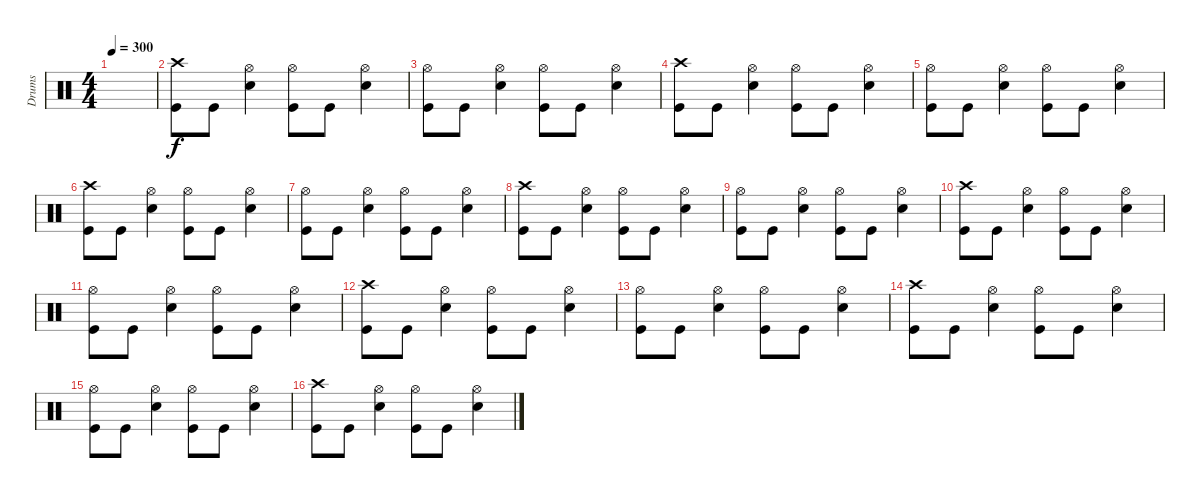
\track ("Drums" "Drums") {instrument percussion}
\staff {score}
\articulation defaults
\ts (4 4)
\tempo 300
\clef neutral
\ks c
|
("Crash high (hit)" "Kick (hit)").8 "Kick (hit)".8 ("Hi-Hat (open)" "Electric Snare (hit)").4 ("Hi-Hat (open)" "Kick (hit)").8 "Kick (hit)".8 ("Hi-Hat (open)" "Electric Snare (hit)").4 |
("Hi-Hat (open)" "Kick (hit)").8 "Kick (hit)".8 ("Hi-Hat (open)" "Electric Snare (hit)").4 ("Hi-Hat (open)" "Kick (hit)").8 "Kick (hit)".8 ("Hi-Hat (open)" "Electric Snare (hit)").4 |
("Crash high (hit)" "Kick (hit)").8 "Kick (hit)".8 ("Hi-Hat (open)" "Electric Snare (hit)").4 ("Hi-Hat (open)" "Kick (hit)").8 "Kick (hit)".8 ("Hi-Hat (open)" "Electric Snare (hit)").4 |
("Hi-Hat (open)" "Kick (hit)").8 "Kick (hit)".8 ("Hi-Hat (open)" "Electric Snare (hit)").4 ("Hi-Hat (open)" "Kick (hit)").8 "Kick (hit)".8 ("Hi-Hat (open)" "Electric Snare (hit)").4 |
("Crash high (hit)" "Kick (hit)").8 "Kick (hit)".8 ("Hi-Hat (open)" "Electric Snare (hit)").4 ("Hi-Hat (open)" "Kick (hit)").8 "Kick (hit)".8 ("Hi-Hat (open)" "Electric Snare (hit)").4 |
("Hi-Hat (open)" "Kick (hit)").8 "Kick (hit)".8 ("Hi-Hat (open)" "Electric Snare (hit)").4 ("Hi-Hat (open)" "Kick (hit)").8 "Kick (hit)".8 ("Hi-Hat (open)" "Electric Snare (hit)").4 |
("Crash high (hit)" "Kick (hit)").8 "Kick (hit)".8 ("Hi-Hat (open)" "Electric Snare (hit)").4 ("Hi-Hat (open)" "Kick (hit)").8 "Kick (hit)".8 ("Hi-Hat (open)" "Electric Snare (hit)").4 |
("Hi-Hat (open)" "Kick (hit)").8 "Kick (hit)".8 ("Hi-Hat (open)" "Electric Snare (hit)").4 ("Hi-Hat (open)" "Kick (hit)").8 "Kick (hit)".8 ("Hi-Hat (open)" "Electric Snare (hit)").4 |
("Crash high (hit)" "Kick (hit)").8 "Kick (hit)".8 ("Hi-Hat (open)" "Electric Snare (hit)").4 ("Hi-Hat (open)" "Kick (hit)").8 "Kick (hit)".8 ("Hi-Hat (open)" "Electric Snare (hit)").4 |
("Hi-Hat (open)" "Kick (hit)").8 "Kick (hit)".8 ("Hi-Hat (open)" "Electric Snare (hit)").4 ("Hi-Hat (open)" "Kick (hit)").8 "Kick (hit)".8 ("Hi-Hat (open)" "Electric Snare (hit)").4 |
("Crash high (hit)" "Kick (hit)").8 "Kick (hit)".8 ("Hi-Hat (open)" "Electric Snare (hit)").4 ("Hi-Hat (open)" "Kick (hit)").8 "Kick (hit)".8 ("Hi-Hat (open)" "Electric Snare (hit)").4 |
("Hi-Hat (open)" "Kick (hit)").8 "Kick (hit)".8 ("Hi-Hat (open)" "Electric Snare (hit)").4 ("Hi-Hat (open)" "Kick (hit)").8 "Kick (hit)".8 ("Hi-Hat (open)" "Electric Snare (hit)").4 |
("Crash high (hit)" "Kick (hit)").8 "Kick (hit)".8 ("Hi-Hat (open)" "Electric Snare (hit)").4 ("Hi-Hat (open)" "Kick (hit)").8 "Kick (hit)".8 ("Hi-Hat (open)" "Electric Snare (hit)").4 |
("Hi-Hat (open)" "Kick (hit)").8 "Kick (hit)".8 ("Hi-Hat (open)" "Electric Snare (hit)").4 ("Hi-Hat (open)" "Kick (hit)").8 "Kick (hit)".8 ("Hi-Hat (open)" "Electric Snare (hit)").4 |
("Crash high (hit)" "Kick (hit)").8 "Kick (hit)".8 ("Hi-Hat (open)" "Electric Snare (hit)").4 ("Hi-Hat (open)" "Kick (hit)").8 "Kick (hit)".8 ("Hi-Hat (open)" "Electric Snare (hit)").4
